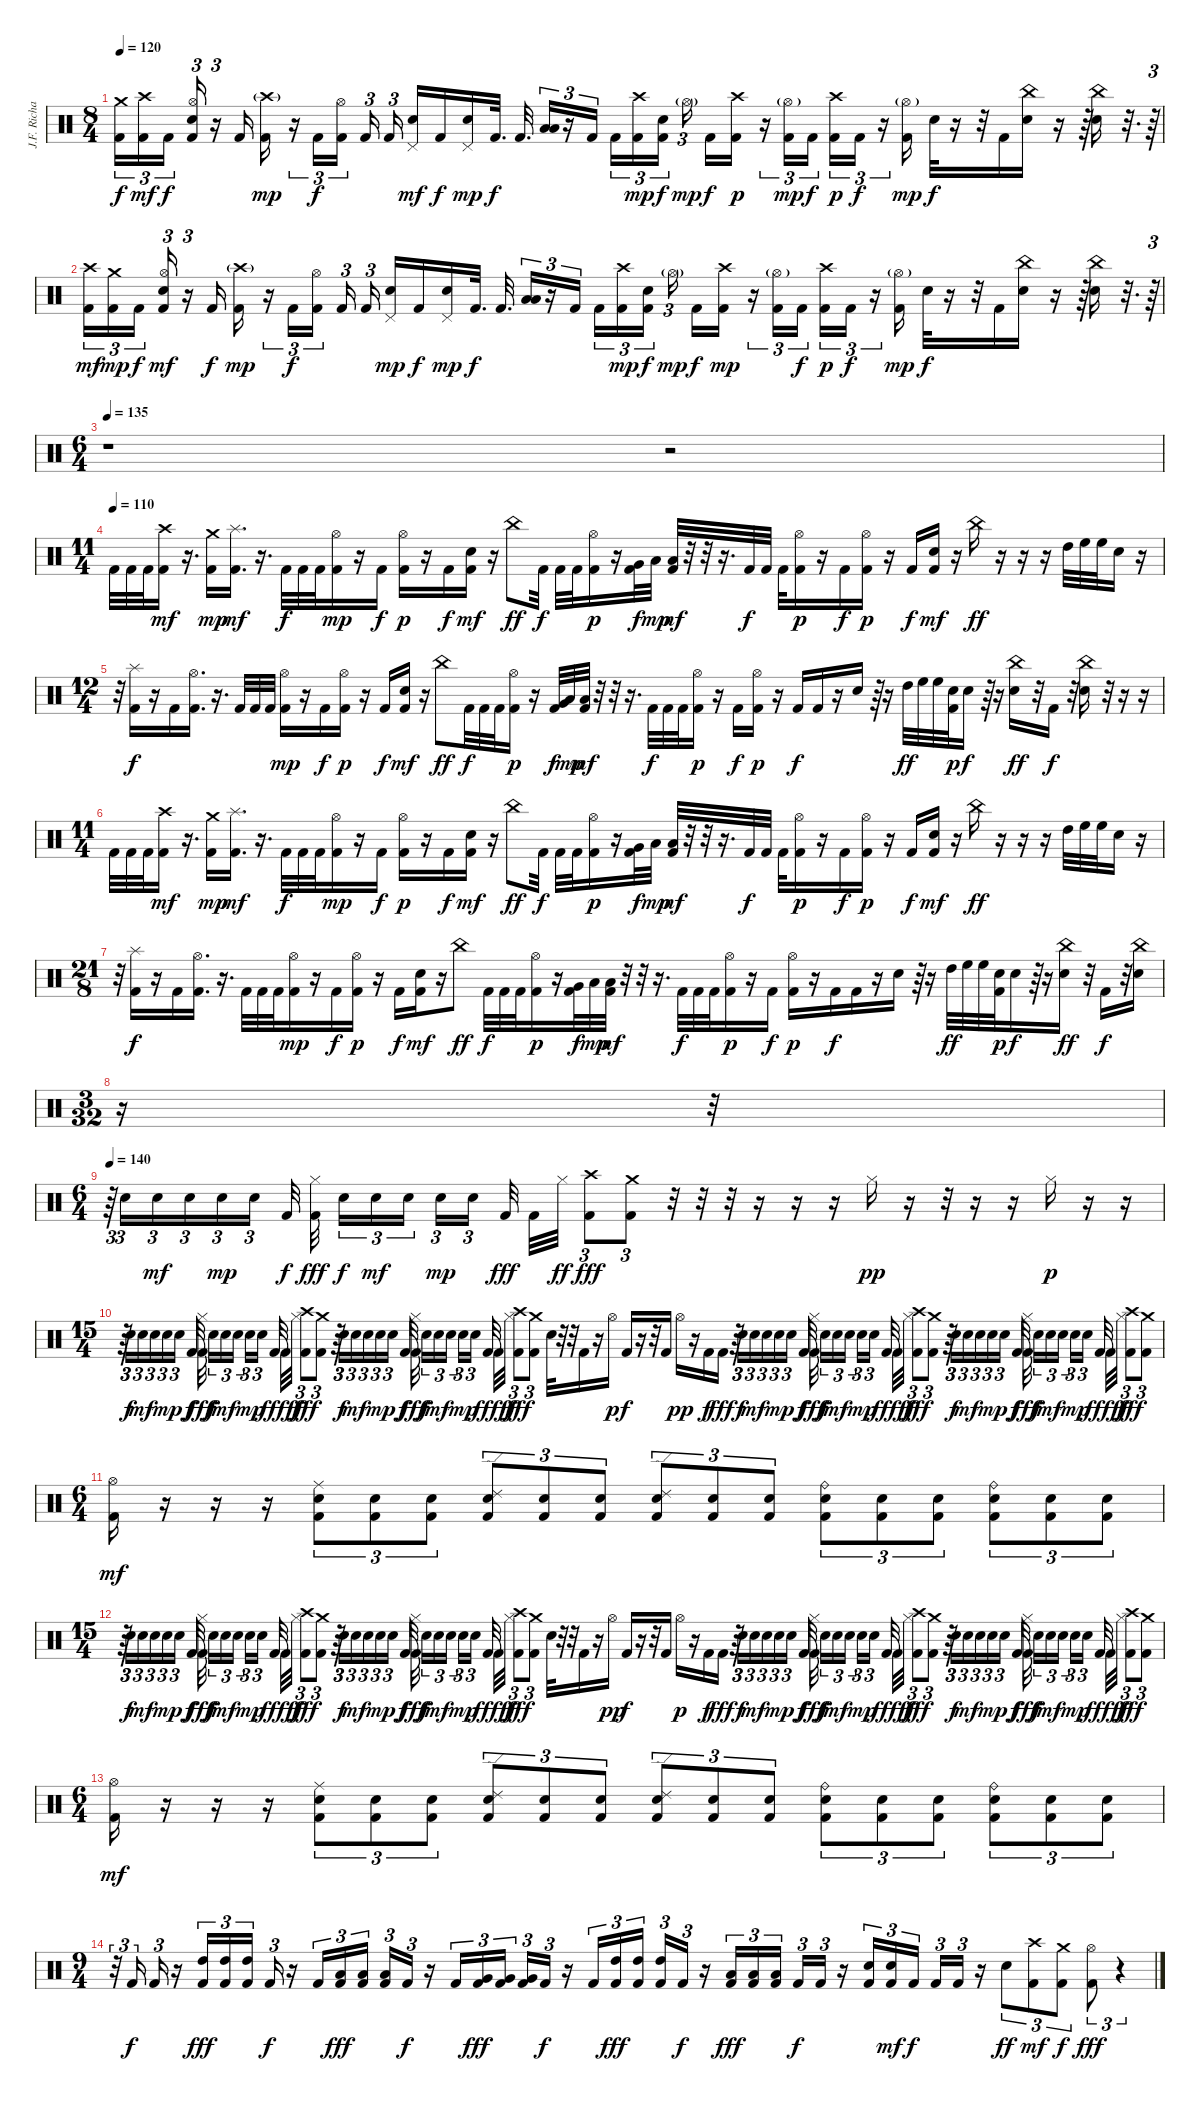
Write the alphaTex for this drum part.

\track ("J.F. Richards" "J.F. Richa") {instrument percussion}
\staff {score}
\articulation defaults
\ts (8 4)
\tempo 120
\clef neutral
\ks c
("Crash medium (hit)" "Kick (hit) 2").16{tu (3 2) dy f} ("Crash high (hit)" "Kick (hit) 2").16{tu (3 2) dy mf} "Kick (hit) 2".16{tu (3 2) dy f beam splitsecondary} ("Hi-Hat (open)" "Electric Snare (hit)" "Kick (hit) 2").16{tu (3 2)} r.16{tu (3 2)} "Kick (hit) 2".16 ("Crash high (hit)"{g} "Kick (hit) 2").16{dy mp} r.16{tu (3 2)} "Kick (hit) 2".16{tu (3 2) dy f} ("Hi-Hat (open)" "Kick (hit) 2").16{tu (3 2) beam splitsecondary} "Kick (hit) 2".16{tu (3 2)} "Kick (hit) 2".16{tu (3 2) beam splitsecondary} ("Pedal Hi-Hat (hit)" "Electric Snare (hit)").16{dy mf} "Kick (hit) 2".16{dy f} ("Pedal Hi-Hat (hit)" "Electric Snare (hit)").16{dy mp} "Kick (hit) 2".32{d dy f} "Kick (hit) 2".32{d} ("Low Floor Tom (hit)" "Low Floor Tom (hit)").16{tu (3 2)} r.16{tu (3 2)} "Kick (hit) 2".16{tu (3 2) beam splitsecondary} "Kick (hit) 2".16{tu (3 2)} ("Crash high (hit)" "Kick (hit) 2").16{tu (3 2) dy mp} ("Electric Snare (hit)" "Kick (hit) 2").16{tu (3 2) dy f beam splitsecondary} "Hi-Hat (open)"{g}.16{tu (3 2) dy mp beam splitsecondary} "Kick (hit) 2".16{dy f} ("Crash high (hit)" "Kick (hit) 2").16{dy p} r.16{tu (3 2)} ("Hi-Hat (open)"{g} "Kick (hit) 2").16{tu (3 2) dy mp} "Kick (hit) 2".16{tu (3 2) dy f beam splitsecondary} ("Crash high (hit)" "Kick (hit) 2").16{tu (3 2) dy p} "Kick (hit) 2".16{tu (3 2) dy f} r.16{tu (3 2)} ("Hi-Hat (open)"{g} "Kick (hit) 2").16{dy mp} "Electric Snare (hit)".32{dy f} r.16 r.32 "Kick (hit) 2".16 ("China (hit)" "Electric Snare (hit)").16 r.16 r.64 ("China (hit)" "Electric Snare (hit)").16 r.32{d} r.64{tu (3 2)} |
("Crash high (hit)" "Kick (hit) 2").16{tu (3 2) dy mf} ("Crash medium (hit)" "Kick (hit) 2").16{tu (3 2) dy mp} "Kick (hit) 2".16{tu (3 2) dy f beam splitsecondary} ("Hi-Hat (open)" "Electric Snare (hit)" "Kick (hit) 2").16{tu (3 2) dy mf} r.16{tu (3 2)} "Kick (hit) 2".16{dy f} ("Crash high (hit)"{g} "Kick (hit) 2").16{dy mp} r.16{tu (3 2)} "Kick (hit) 2".16{tu (3 2) dy f} ("Hi-Hat (open)" "Kick (hit) 2").16{tu (3 2) beam splitsecondary} "Kick (hit) 2".16{tu (3 2)} "Kick (hit) 2".16{tu (3 2) beam splitsecondary} ("Pedal Hi-Hat (hit)" "Electric Snare (hit)").16{dy mp} "Kick (hit) 2".16{dy f} ("Pedal Hi-Hat (hit)" "Electric Snare (hit)").16{dy mp} "Kick (hit) 2".32{d dy f} "Kick (hit) 2".32{d} ("Low Floor Tom (hit)" "Low Floor Tom (hit)").16{tu (3 2)} r.16{tu (3 2)} "Kick (hit) 2".16{tu (3 2) beam splitsecondary} "Kick (hit) 2".16{tu (3 2)} ("Crash high (hit)" "Kick (hit) 2").16{tu (3 2) dy mp} ("Electric Snare (hit)" "Kick (hit) 2").16{tu (3 2) dy f beam splitsecondary} "Hi-Hat (open)"{g}.16{tu (3 2) dy mp beam splitsecondary} "Kick (hit) 2".16{dy f} ("Crash high (hit)" "Kick (hit) 2").16{dy mp} r.16{tu (3 2)} ("Hi-Hat (open)"{g} "Kick (hit) 2").16{tu (3 2)} "Kick (hit) 2".16{tu (3 2) dy f beam splitsecondary} ("Crash high (hit)" "Kick (hit) 2").16{tu (3 2) dy p} "Kick (hit) 2".16{tu (3 2) dy f} r.16{tu (3 2)} ("Hi-Hat (open)"{g} "Kick (hit) 2").16{dy mp} "Electric Snare (hit)".32{dy f} r.16 r.32 "Kick (hit) 2".16 ("China (hit)" "Electric Snare (hit)").16 r.16 r.64 ("China (hit)" "Electric Snare (hit)").16 r.32{d} r.64{tu (3 2)} |
\ts (6 4)
\tempo 135
r.1 r.2 |
\ts (11 4)
\tempo (110)
"Kick (hit) 2".32 "Kick (hit) 2".32 "Kick (hit) 2".32 ("Crash high (hit)" "Kick (hit) 2").16{dy mf} r.16{d} ("Crash medium (hit)" "Kick (hit) 2").16{dy mp} ("Splash (hit)" "Kick (hit) 2").16{d dy mf} r.16{d} "Kick (hit) 2".32{dy f} "Kick (hit) 2".32 "Kick (hit) 2".32 ("Hi-Hat (open)" "Kick (hit) 2").16{dy mp} r.16 "Kick (hit) 2".16{dy f} ("Hi-Hat (open)" "Kick (hit) 2").16{dy p} r.16 "Kick (hit) 2".16{dy f} ("Electric Snare (hit)" "Kick (hit) 2").16{dy mf} r.16 "China (hit)".8{dy ff} "Kick (hit) 2".32{dy f} "Kick (hit) 2".32 "Kick (hit) 2".32 ("Hi-Hat (open)" "Kick (hit) 2").16{dy p} r.16 ("Very Low Tom (hit)" "Kick (hit) 2").32{dy f} "Low Floor Tom (hit)".32{dy mp} ("Low Floor Tom (hit)" "Kick (hit) 2").32{dy mf} r.32 r.32 r.16{d} "Kick (hit) 2".32{dy f} "Kick (hit) 2".32 "Kick (hit) 2".32 ("Hi-Hat (open)" "Kick (hit) 2").16{dy p} r.16 "Kick (hit) 2".16{dy f} ("Hi-Hat (open)" "Kick (hit) 2").16{dy p} r.16 "Kick (hit) 2".16{dy f} ("Electric Snare (hit)" "Kick (hit) 2").16{dy mf} r.16 "China (hit)".16{dy ff} r.16 r.16 r.16 "High Tom (hit)".32 "High Floor Tom (hit)".32 "High Floor Tom (hit)".32 "Electric Snare (hit)".16 r.16 |
\ts (12 4)
r.32 ("Splash (hit)" "Kick (hit) 2").16{dy f} r.16 "Kick (hit) 2".16 ("Hi-Hat (open)" "Kick (hit) 2").16{d} r.16{d} "Kick (hit) 2".32 "Kick (hit) 2".32 "Kick (hit) 2".32 ("Hi-Hat (open)" "Kick (hit) 2").16{dy mp} r.16 "Kick (hit) 2".16{dy f} ("Hi-Hat (open)" "Kick (hit) 2").16{dy p} r.16 "Kick (hit) 2".16{dy f} ("Electric Snare (hit)" "Kick (hit) 2").16{dy mf} r.16 "China (hit)".8{dy ff} "Kick (hit) 2".32{dy f} "Kick (hit) 2".32 "Kick (hit) 2".32 ("Hi-Hat (open)" "Kick (hit) 2").16{dy p} r.16 ("Very Low Tom (hit)" "Kick (hit) 2").32{dy f} "Low Floor Tom (hit)".32{dy mp} ("Low Floor Tom (hit)" "Kick (hit) 2").32{dy mf} r.32 r.32 r.16{d} "Kick (hit) 2".32{dy f} "Kick (hit) 2".32 "Kick (hit) 2".32 ("Hi-Hat (open)" "Kick (hit) 2").16{dy p} r.16 "Kick (hit) 2".16{dy f} ("Hi-Hat (open)" "Kick (hit) 2").16{dy p} r.16 "Kick (hit) 2".16{dy f} "Kick (hit) 2".16 r.16 "Electric Snare (hit)".16 r.64 r.16 "High Tom (hit)".32{dy ff} "High Floor Tom (hit)".32 "High Floor Tom (hit)".32 ("Electric Snare (hit)" "Kick (hit) 2").32{dy p} "Electric Snare (hit)".16{dy f} r.64 r.16 ("China (hit)" "Electric Snare (hit)").16{dy ff} r.32 "Kick (hit) 2".16{dy f} r.32 ("China (hit)" "Electric Snare (hit)").16 r.32 r.16 r.16 |
\ts (11 4)
"Kick (hit) 2".32 "Kick (hit) 2".32 "Kick (hit) 2".32 ("Crash high (hit)" "Kick (hit) 2").16{dy mf} r.16{d} ("Crash medium (hit)" "Kick (hit) 2").16{dy mp} ("Splash (hit)" "Kick (hit) 2").16{d dy mf} r.16{d} "Kick (hit) 2".32{dy f} "Kick (hit) 2".32 "Kick (hit) 2".32 ("Hi-Hat (open)" "Kick (hit) 2").16{dy mp} r.16 "Kick (hit) 2".16{dy f} ("Hi-Hat (open)" "Kick (hit) 2").16{dy p} r.16 "Kick (hit) 2".16{dy f} ("Electric Snare (hit)" "Kick (hit) 2").16{dy mf} r.16 "China (hit)".8{dy ff} "Kick (hit) 2".32{dy f} "Kick (hit) 2".32 "Kick (hit) 2".32 ("Hi-Hat (open)" "Kick (hit) 2").16{dy p} r.16 ("Very Low Tom (hit)" "Kick (hit) 2").32{dy f} "Low Floor Tom (hit)".32{dy mp} ("Low Floor Tom (hit)" "Kick (hit) 2").32{dy mf} r.32 r.32 r.16{d} "Kick (hit) 2".32{dy f} "Kick (hit) 2".32 "Kick (hit) 2".32 ("Hi-Hat (open)" "Kick (hit) 2").16{dy p} r.16 "Kick (hit) 2".16{dy f} ("Hi-Hat (open)" "Kick (hit) 2").16{dy p} r.16 "Kick (hit) 2".16{dy f} ("Electric Snare (hit)" "Kick (hit) 2").16{dy mf} r.16 "China (hit)".16{dy ff} r.16 r.16 r.16 "High Tom (hit)".32 "High Floor Tom (hit)".32 "High Floor Tom (hit)".32 "Electric Snare (hit)".16 r.16 |
\ts (21 8)
r.32 ("Splash (hit)" "Kick (hit) 2").16{dy f} r.16 "Kick (hit) 2".16 ("Hi-Hat (open)" "Kick (hit) 2").16{d} r.16{d} "Kick (hit) 2".32 "Kick (hit) 2".32 "Kick (hit) 2".32 ("Hi-Hat (open)" "Kick (hit) 2").16{dy mp} r.16 "Kick (hit) 2".16{dy f} ("Hi-Hat (open)" "Kick (hit) 2").16{dy p} r.16 "Kick (hit) 2".16{dy f} ("Electric Snare (hit)" "Kick (hit) 2").16{dy mf} r.16 "China (hit)".8{dy ff} "Kick (hit) 2".32{dy f} "Kick (hit) 2".32 "Kick (hit) 2".32 ("Hi-Hat (open)" "Kick (hit) 2").16{dy p} r.16 ("Very Low Tom (hit)" "Kick (hit) 2").32{dy f} "Low Floor Tom (hit)".32{dy mp} ("Low Floor Tom (hit)" "Kick (hit) 2").32{dy mf} r.32 r.32 r.16{d} "Kick (hit) 2".32{dy f} "Kick (hit) 2".32 "Kick (hit) 2".32 ("Hi-Hat (open)" "Kick (hit) 2").16{dy p} r.16 "Kick (hit) 2".16{dy f} ("Hi-Hat (open)" "Kick (hit) 2").16{dy p} r.16 "Kick (hit) 2".16{dy f} "Kick (hit) 2".16 r.16 "Electric Snare (hit)".16 r.64 r.16 "High Tom (hit)".32{dy ff} "High Floor Tom (hit)".32 "High Floor Tom (hit)".32 ("Electric Snare (hit)" "Kick (hit) 2").32{dy p} "Electric Snare (hit)".16{dy f} r.64 r.16 ("China (hit)" "Electric Snare (hit)").16{dy ff} r.32 "Kick (hit) 2".16{dy f} r.32 ("China (hit)" "Electric Snare (hit)").16 |
\ts (3 32)
r.16 r.32 |
\ts (6 4)
\tempo 140
r.64{tu (3 2)} "Electric Snare (hit)".16{tu (3 2)} "Electric Snare (hit)".16{tu (3 2) dy mf} "Electric Snare (hit)".16{tu (3 2)} "Electric Snare (hit)".16{tu (3 2) dy mp} "Electric Snare (hit)".16{tu (3 2) beam splitsecondary} "Kick (hit) 2".32{dy f} ("Hi-Hat (closed)" "Kick (hit) 2").32{dy fff beam splitsecondary} "Electric Snare (hit)".16{tu (3 2) dy f} "Electric Snare (hit)".16{tu (3 2) dy mf} "Electric Snare (hit)".16{tu (3 2) beam splitsecondary} "Electric Snare (hit)".16{tu (3 2) dy mp} "Electric Snare (hit)".16{tu (3 2) beam splitsecondary} "Kick (hit) 2".32{dy fff} "Kick (hit) 2".32 "Hi-Hat (closed)".32{dy ff} ("Crash high (hit)" "Kick (hit) 2").8{tu (3 2) dy fff} ("Crash medium (hit)" "Kick (hit) 2").8{tu (3 2)} r.32 r.32 r.32 r.16 r.16 r.16 "Hi-Hat (closed)".16{dy pp} r.16 r.32 r.16 r.16 "Hi-Hat (closed)".16{dy p} r.16 r.16 |
\ts (15 4)
r.64{tu (3 2)} "Electric Snare (hit)".16{tu (3 2) dy f} "Electric Snare (hit)".16{tu (3 2) dy mf} "Electric Snare (hit)".16{tu (3 2)} "Electric Snare (hit)".16{tu (3 2) dy mp} "Electric Snare (hit)".16{tu (3 2) beam splitsecondary} "Kick (hit) 2".32{dy f} ("Hi-Hat (closed)" "Kick (hit) 2").32{dy fff beam splitsecondary} "Electric Snare (hit)".16{tu (3 2) dy f} "Electric Snare (hit)".16{tu (3 2) dy mf} "Electric Snare (hit)".16{tu (3 2) beam splitsecondary} "Electric Snare (hit)".16{tu (3 2) dy mp} "Electric Snare (hit)".16{tu (3 2) beam splitsecondary} "Kick (hit) 2".32{dy fff} "Kick (hit) 2".32 "Hi-Hat (closed)".32{dy ff} ("Crash high (hit)" "Kick (hit) 2").8{tu (3 2) dy fff} ("Crash medium (hit)" "Kick (hit) 2").8{tu (3 2)} r.64{tu (3 2)} "Electric Snare (hit)".16{tu (3 2) dy f} "Electric Snare (hit)".16{tu (3 2) dy mf} "Electric Snare (hit)".16{tu (3 2)} "Electric Snare (hit)".16{tu (3 2) dy mp} "Electric Snare (hit)".16{tu (3 2) beam splitsecondary} "Kick (hit) 2".32{dy f} ("Hi-Hat (closed)" "Kick (hit) 2").32{dy fff beam splitsecondary} "Electric Snare (hit)".16{tu (3 2) dy f} "Electric Snare (hit)".16{tu (3 2) dy mf} "Electric Snare (hit)".16{tu (3 2) beam splitsecondary} "Electric Snare (hit)".16{tu (3 2) dy mp} "Electric Snare (hit)".16{tu (3 2) beam splitsecondary} "Kick (hit) 2".32{dy fff} "Kick (hit) 2".32 "Hi-Hat (closed)".32{dy ff} ("Crash high (hit)" "Kick (hit) 2").8{tu (3 2) dy fff} ("Crash medium (hit)" "Kick (hit) 2").8{tu (3 2)} "Electric Snare (hit)".32 r.32 r.32 "Kick (hit) 2".16 r.16 "Hi-Hat (open)".16{dy p} "Kick (hit) 2".16{dy f} r.16 r.32 "Kick (hit) 2".16 "Hi-Hat (open)".16{dy pp} r.16 "Kick (hit) 2".16{dy f} "Kick (hit) 2".16{dy fff} r.64{tu (3 2)} "Electric Snare (hit)".16{tu (3 2) dy f} "Electric Snare (hit)".16{tu (3 2) dy mf} "Electric Snare (hit)".16{tu (3 2)} "Electric Snare (hit)".16{tu (3 2) dy mp} "Electric Snare (hit)".16{tu (3 2) beam splitsecondary} "Kick (hit) 2".32{dy f} ("Hi-Hat (closed)" "Kick (hit) 2").32{dy fff beam splitsecondary} "Electric Snare (hit)".16{tu (3 2) dy f} "Electric Snare (hit)".16{tu (3 2) dy mf} "Electric Snare (hit)".16{tu (3 2) beam splitsecondary} "Electric Snare (hit)".16{tu (3 2) dy mp} "Electric Snare (hit)".16{tu (3 2) beam splitsecondary} "Kick (hit) 2".32{dy fff} "Kick (hit) 2".32 "Hi-Hat (closed)".32{dy ff} ("Crash high (hit)" "Kick (hit) 2").8{tu (3 2) dy fff} ("Crash medium (hit)" "Kick (hit) 2").8{tu (3 2)} r.64{tu (3 2)} "Electric Snare (hit)".16{tu (3 2) dy f} "Electric Snare (hit)".16{tu (3 2) dy mf} "Electric Snare (hit)".16{tu (3 2)} "Electric Snare (hit)".16{tu (3 2) dy mp} "Electric Snare (hit)".16{tu (3 2) beam splitsecondary} "Kick (hit) 2".32{dy f} ("Hi-Hat (closed)" "Kick (hit) 2").32{dy fff beam splitsecondary} "Electric Snare (hit)".16{tu (3 2) dy f} "Electric Snare (hit)".16{tu (3 2) dy mf} "Electric Snare (hit)".16{tu (3 2) beam splitsecondary} "Electric Snare (hit)".16{tu (3 2) dy mp} "Electric Snare (hit)".16{tu (3 2) beam splitsecondary} "Kick (hit) 2".32{dy fff} "Kick (hit) 2".32 "Hi-Hat (closed)".32{dy ff} ("Crash high (hit)" "Kick (hit) 2").8{tu (3 2) dy fff} ("Crash medium (hit)" "Kick (hit) 2").8{tu (3 2)} |
\ts (6 4)
("Hi-Hat (open)" "Kick (hit) 2").16{dy mf} r.16 r.16 r.16 ("Ride (middle)" "Electric Snare (hit)" "Kick (hit) 2").8{tu (3 2)} ("Electric Snare (hit)" "Kick (hit) 2").8{tu (3 2)} ("Electric Snare (hit)" "Kick (hit) 2").8{tu (3 2)} ("Ride (edge) 2" "Electric Snare (hit)" "Kick (hit) 2").8{tu (3 2)} ("Electric Snare (hit)" "Kick (hit) 2").8{tu (3 2)} ("Electric Snare (hit)" "Kick (hit) 2").8{tu (3 2)} ("Ride (edge) 2" "Electric Snare (hit)" "Kick (hit) 2").8{tu (3 2)} ("Electric Snare (hit)" "Kick (hit) 2").8{tu (3 2)} ("Electric Snare (hit)" "Kick (hit) 2").8{tu (3 2)} ("Ride (bell)" "Electric Snare (hit)" "Kick (hit) 2").8{tu (3 2)} ("Electric Snare (hit)" "Kick (hit) 2").8{tu (3 2)} ("Electric Snare (hit)" "Kick (hit) 2").8{tu (3 2)} ("Ride (bell)" "Electric Snare (hit)" "Kick (hit) 2").8{tu (3 2)} ("Electric Snare (hit)" "Kick (hit) 2").8{tu (3 2)} ("Electric Snare (hit)" "Kick (hit) 2").8{tu (3 2)} |
\ts (15 4)
r.64{tu (3 2)} "Electric Snare (hit)".16{tu (3 2) dy f} "Electric Snare (hit)".16{tu (3 2) dy mf} "Electric Snare (hit)".16{tu (3 2)} "Electric Snare (hit)".16{tu (3 2) dy mp} "Electric Snare (hit)".16{tu (3 2) beam splitsecondary} "Kick (hit) 2".32{dy f} ("Hi-Hat (closed)" "Kick (hit) 2").32{dy fff beam splitsecondary} "Electric Snare (hit)".16{tu (3 2) dy f} "Electric Snare (hit)".16{tu (3 2) dy mf} "Electric Snare (hit)".16{tu (3 2) beam splitsecondary} "Electric Snare (hit)".16{tu (3 2) dy mp} "Electric Snare (hit)".16{tu (3 2) beam splitsecondary} "Kick (hit) 2".32{dy fff} "Kick (hit) 2".32 "Hi-Hat (closed)".32{dy ff} ("Crash high (hit)" "Kick (hit) 2").8{tu (3 2) dy fff} ("Crash medium (hit)" "Kick (hit) 2").8{tu (3 2)} r.64{tu (3 2)} "Electric Snare (hit)".16{tu (3 2) dy f} "Electric Snare (hit)".16{tu (3 2) dy mf} "Electric Snare (hit)".16{tu (3 2)} "Electric Snare (hit)".16{tu (3 2) dy mp} "Electric Snare (hit)".16{tu (3 2) beam splitsecondary} "Kick (hit) 2".32{dy f} ("Hi-Hat (closed)" "Kick (hit) 2").32{dy fff beam splitsecondary} "Electric Snare (hit)".16{tu (3 2) dy f} "Electric Snare (hit)".16{tu (3 2) dy mf} "Electric Snare (hit)".16{tu (3 2) beam splitsecondary} "Electric Snare (hit)".16{tu (3 2) dy mp} "Electric Snare (hit)".16{tu (3 2) beam splitsecondary} "Kick (hit) 2".32{dy fff} "Kick (hit) 2".32 "Hi-Hat (closed)".32{dy ff} ("Crash high (hit)" "Kick (hit) 2").8{tu (3 2) dy fff} ("Crash medium (hit)" "Kick (hit) 2").8{tu (3 2)} "Electric Snare (hit)".32 r.32 r.32 "Kick (hit) 2".16 r.16 "Hi-Hat (open)".16{dy pp} "Kick (hit) 2".16{dy f} r.16 r.32 "Kick (hit) 2".16 "Hi-Hat (open)".16{dy p} r.16 "Kick (hit) 2".16{dy f} "Kick (hit) 2".16{dy fff} r.64{tu (3 2)} "Electric Snare (hit)".16{tu (3 2) dy f} "Electric Snare (hit)".16{tu (3 2) dy mf} "Electric Snare (hit)".16{tu (3 2)} "Electric Snare (hit)".16{tu (3 2) dy mp} "Electric Snare (hit)".16{tu (3 2) beam splitsecondary} "Kick (hit) 2".32{dy f} ("Hi-Hat (closed)" "Kick (hit) 2").32{dy fff beam splitsecondary} "Electric Snare (hit)".16{tu (3 2) dy f} "Electric Snare (hit)".16{tu (3 2) dy mf} "Electric Snare (hit)".16{tu (3 2) beam splitsecondary} "Electric Snare (hit)".16{tu (3 2) dy mp} "Electric Snare (hit)".16{tu (3 2) beam splitsecondary} "Kick (hit) 2".32{dy fff} "Kick (hit) 2".32 "Hi-Hat (closed)".32{dy ff} ("Crash high (hit)" "Kick (hit) 2").8{tu (3 2) dy fff} ("Crash medium (hit)" "Kick (hit) 2").8{tu (3 2)} r.64{tu (3 2)} "Electric Snare (hit)".16{tu (3 2) dy f} "Electric Snare (hit)".16{tu (3 2) dy mf} "Electric Snare (hit)".16{tu (3 2)} "Electric Snare (hit)".16{tu (3 2) dy mp} "Electric Snare (hit)".16{tu (3 2) beam splitsecondary} "Kick (hit) 2".32{dy f} ("Hi-Hat (closed)" "Kick (hit) 2").32{dy fff beam splitsecondary} "Electric Snare (hit)".16{tu (3 2) dy f} "Electric Snare (hit)".16{tu (3 2) dy mf} "Electric Snare (hit)".16{tu (3 2) beam splitsecondary} "Electric Snare (hit)".16{tu (3 2) dy mp} "Electric Snare (hit)".16{tu (3 2) beam splitsecondary} "Kick (hit) 2".32{dy fff} "Kick (hit) 2".32 "Hi-Hat (closed)".32{dy ff} ("Crash high (hit)" "Kick (hit) 2").8{tu (3 2) dy fff} ("Crash medium (hit)" "Kick (hit) 2").8{tu (3 2)} |
\ts (6 4)
("Hi-Hat (open)" "Kick (hit) 2").16{dy mf} r.16 r.16 r.16 ("Ride (middle)" "Electric Snare (hit)" "Kick (hit) 2").8{tu (3 2)} ("Electric Snare (hit)" "Kick (hit) 2").8{tu (3 2)} ("Electric Snare (hit)" "Kick (hit) 2").8{tu (3 2)} ("Ride (edge) 2" "Electric Snare (hit)" "Kick (hit) 2").8{tu (3 2)} ("Electric Snare (hit)" "Kick (hit) 2").8{tu (3 2)} ("Electric Snare (hit)" "Kick (hit) 2").8{tu (3 2)} ("Ride (edge) 2" "Electric Snare (hit)" "Kick (hit) 2").8{tu (3 2)} ("Electric Snare (hit)" "Kick (hit) 2").8{tu (3 2)} ("Electric Snare (hit)" "Kick (hit) 2").8{tu (3 2)} ("Ride (bell)" "Electric Snare (hit)" "Kick (hit) 2").8{tu (3 2)} ("Electric Snare (hit)" "Kick (hit) 2").8{tu (3 2)} ("Electric Snare (hit)" "Kick (hit) 2").8{tu (3 2)} ("Ride (bell)" "Electric Snare (hit)" "Kick (hit) 2").8{tu (3 2)} ("Electric Snare (hit)" "Kick (hit) 2").8{tu (3 2)} ("Electric Snare (hit)" "Kick (hit) 2").8{tu (3 2)} |
\ts (9 4)
r.32{tu (3 2)} "Kick (hit) 2".16{tu (3 2) dy f} "Kick (hit) 2".16{tu (3 2)} r.16 ("High Tom (hit)" "Kick (hit) 2").16{tu (3 2) dy fff} ("High Tom (hit)" "Kick (hit) 2").16{tu (3 2)} ("High Tom (hit)" "Kick (hit) 2").16{tu (3 2) beam splitsecondary} "Kick (hit) 2".16{tu (3 2) dy f} r.16 "Kick (hit) 2".16{tu (3 2)} ("Low Tom (hit)" "Kick (hit) 2").16{tu (3 2) dy fff} ("Low Tom (hit)" "Kick (hit) 2").16{tu (3 2) beam splitsecondary} ("Low Tom (hit)" "Kick (hit) 2").16{tu (3 2)} "Kick (hit) 2".16{tu (3 2) dy f} r.16 "Kick (hit) 2".16{tu (3 2)} ("Very Low Tom (hit)" "Kick (hit) 2").16{tu (3 2) dy fff} ("Very Low Tom (hit)" "Kick (hit) 2").16{tu (3 2) beam splitsecondary} ("Very Low Tom (hit)" "Kick (hit) 2").16{tu (3 2)} "Kick (hit) 2".16{tu (3 2) dy f} r.16 "Kick (hit) 2".16{tu (3 2)} ("High Tom (hit)" "Kick (hit) 2").16{tu (3 2) dy fff} ("High Tom (hit)" "Kick (hit) 2").16{tu (3 2) beam splitsecondary} ("High Tom (hit)" "Kick (hit) 2").16{tu (3 2)} "Kick (hit) 2".16{tu (3 2) dy f} r.16 ("Low Tom (hit)" "Kick (hit) 2").16{tu (3 2) dy fff} ("Low Tom (hit)" "Kick (hit) 2").16{tu (3 2)} ("Low Tom (hit)" "Kick (hit) 2").16{tu (3 2) beam splitsecondary} "Kick (hit) 2".16{tu (3 2) dy f} "Kick (hit) 2".16{tu (3 2)} r.16 ("Electric Snare (hit)" "Kick (hit) 2").16{tu (3 2)} ("Electric Snare (hit)" "Kick (hit) 2").16{tu (3 2) dy mf} "Kick (hit) 2".16{tu (3 2) dy f beam splitsecondary} "Kick (hit) 2".16{tu (3 2)} "Kick (hit) 2".16{tu (3 2)} r.16 "Electric Snare (hit)".8{tu (3 2) dy ff} ("Crash high (hit)" "Kick (hit) 2").8{tu (3 2) dy mf} ("Crash medium (hit)" "Kick (hit) 2").8{tu (3 2) dy f} ("Hi-Hat (open)" "Kick (hit) 2").8{tu (3 2) dy fff} r.4{tu (3 2)}
